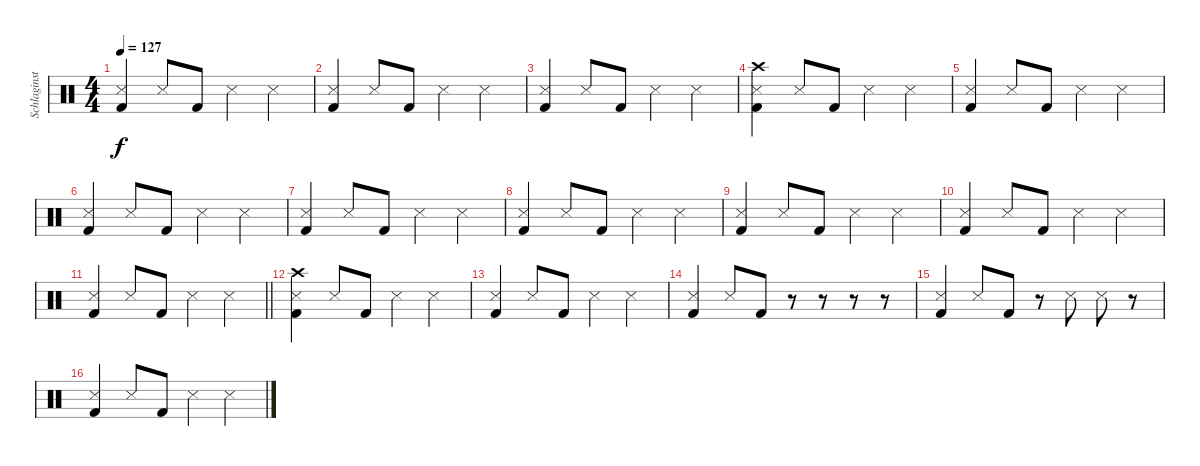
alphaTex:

\track ("Schlaginstrumente - Auswahl" "Schlaginst") {instrument percussion}
\staff {score}
\articulation defaults
\ts (4 4)
\tempo 127
\clef neutral
\ks c
("Snare (side stick) 3" "Kick (hit) 2").4{dy f} "Snare (side stick) 3".8 "Kick (hit) 2".8 "Snare (side stick) 3".4 "Snare (side stick) 3".4 |
("Snare (side stick) 3" "Kick (hit) 2").4 "Snare (side stick) 3".8 "Kick (hit) 2".8 "Snare (side stick) 3".4 "Snare (side stick) 3".4 |
("Snare (side stick) 3" "Kick (hit) 2").4 "Snare (side stick) 3".8 "Kick (hit) 2".8 "Snare (side stick) 3".4 "Snare (side stick) 3".4 |
("Crash high (hit)" "Snare (side stick) 3" "Kick (hit) 2").4 "Snare (side stick) 3".8 "Kick (hit) 2".8 "Snare (side stick) 3".4 "Snare (side stick) 3".4 |
("Snare (side stick) 3" "Kick (hit) 2").4 "Snare (side stick) 3".8 "Kick (hit) 2".8 "Snare (side stick) 3".4 "Snare (side stick) 3".4 |
("Snare (side stick) 3" "Kick (hit) 2").4 "Snare (side stick) 3".8 "Kick (hit) 2".8 "Snare (side stick) 3".4 "Snare (side stick) 3".4 |
("Snare (side stick) 3" "Kick (hit) 2").4 "Snare (side stick) 3".8 "Kick (hit) 2".8 "Snare (side stick) 3".4 "Snare (side stick) 3".4 |
("Snare (side stick) 3" "Kick (hit) 2").4 "Snare (side stick) 3".8 "Kick (hit) 2".8 "Snare (side stick) 3".4 "Snare (side stick) 3".4 |
("Snare (side stick) 3" "Kick (hit) 2").4 "Snare (side stick) 3".8 "Kick (hit) 2".8 "Snare (side stick) 3".4 "Snare (side stick) 3".4 |
("Snare (side stick) 3" "Kick (hit) 2").4 "Snare (side stick) 3".8 "Kick (hit) 2".8 "Snare (side stick) 3".4 "Snare (side stick) 3".4 |
\barLineRight lightlight
("Snare (side stick) 3" "Kick (hit) 2").4 "Snare (side stick) 3".8 "Kick (hit) 2".8 "Snare (side stick) 3".4 "Snare (side stick) 3".4 |
("Crash high (hit)" "Snare (side stick) 3" "Kick (hit) 2").4 "Snare (side stick) 3".8 "Kick (hit) 2".8 "Snare (side stick) 3".4 "Snare (side stick) 3".4 |
("Snare (side stick) 3" "Kick (hit) 2").4 "Snare (side stick) 3".8 "Kick (hit) 2".8 "Snare (side stick) 3".4 "Snare (side stick) 3".4 |
("Snare (side stick) 3" "Kick (hit) 2").4 "Snare (side stick) 3".8 "Kick (hit) 2".8 r.8 r.8 r.8 r.8 |
("Snare (side stick) 3" "Kick (hit) 2").4 "Snare (side stick) 3".8 "Kick (hit) 2".8 r.8 "Snare (side stick) 3".8 "Snare (side stick) 3".8 r.8 |
("Snare (side stick) 3" "Kick (hit) 2").4 "Snare (side stick) 3".8 "Kick (hit) 2".8 "Snare (side stick) 3".4 "Snare (side stick) 3".4
